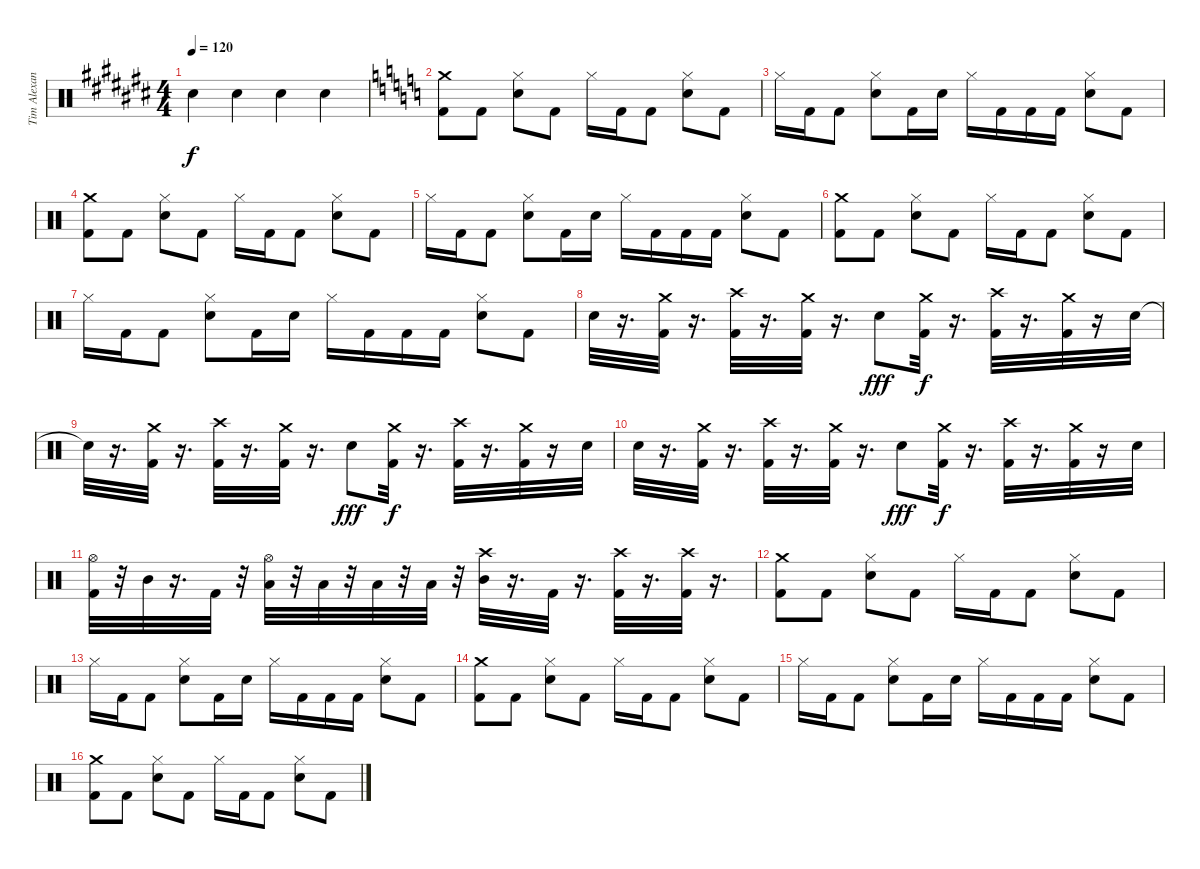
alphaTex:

\track ("Tim Alexander (Percussion)" "Tim Alexan") {instrument percussion}
\staff {score}
\articulation defaults
\ts (4 4)
\tempo 120
\clef neutral
\ks c# "Electric Snare (hit)".4{dy f} "Electric Snare (hit)".4 "Electric Snare (hit)".4 "Electric Snare (hit)".4
|
\ks c
("Crash medium (hit)" "Kick (hit) 2").8 "Kick (hit) 2".8 ("Hi-Hat (closed)" "Electric Snare (hit)").8 "Kick (hit) 2".8 "Hi-Hat (closed)".16 "Kick (hit) 2".16 "Kick (hit) 2".8 ("Hi-Hat (closed)" "Electric Snare (hit)").8 "Kick (hit) 2".8 |
"Hi-Hat (closed)".16 "Kick (hit) 2".16 "Kick (hit) 2".8 ("Hi-Hat (closed)" "Electric Snare (hit)").8 "Kick (hit) 2".16 "Electric Snare (hit)".16 "Hi-Hat (closed)".16 "Kick (hit) 2".16 "Kick (hit) 2".16 "Kick (hit) 2".16 ("Hi-Hat (closed)" "Electric Snare (hit)").8 "Kick (hit) 2".8 |
("Crash medium (hit)" "Kick (hit) 2").8 "Kick (hit) 2".8 ("Hi-Hat (closed)" "Electric Snare (hit)").8 "Kick (hit) 2".8 "Hi-Hat (closed)".16 "Kick (hit) 2".16 "Kick (hit) 2".8 ("Hi-Hat (closed)" "Electric Snare (hit)").8 "Kick (hit) 2".8 |
"Hi-Hat (closed)".16 "Kick (hit) 2".16 "Kick (hit) 2".8 ("Hi-Hat (closed)" "Electric Snare (hit)").8 "Kick (hit) 2".16 "Electric Snare (hit)".16 "Hi-Hat (closed)".16 "Kick (hit) 2".16 "Kick (hit) 2".16 "Kick (hit) 2".16 ("Hi-Hat (closed)" "Electric Snare (hit)").8 "Kick (hit) 2".8 |
("Crash medium (hit)" "Kick (hit) 2").8 "Kick (hit) 2".8 ("Hi-Hat (closed)" "Electric Snare (hit)").8 "Kick (hit) 2".8 "Hi-Hat (closed)".16 "Kick (hit) 2".16 "Kick (hit) 2".8 ("Hi-Hat (closed)" "Electric Snare (hit)").8 "Kick (hit) 2".8 |
"Hi-Hat (closed)".16 "Kick (hit) 2".16 "Kick (hit) 2".8 ("Hi-Hat (closed)" "Electric Snare (hit)").8 "Kick (hit) 2".16 "Electric Snare (hit)".16 "Hi-Hat (closed)".16 "Kick (hit) 2".16 "Kick (hit) 2".16 "Kick (hit) 2".16 ("Hi-Hat (closed)" "Electric Snare (hit)").8 "Kick (hit) 2".8 |
"Electric Snare (hit)".32 r.16{d} ("Crash medium (hit)" "Kick (hit) 2").32 r.16{d} ("Crash high (hit)" "Kick (hit) 2").32 r.16{d} ("Crash medium (hit)" "Kick (hit) 2").32 r.16{d} "Electric Snare (hit)".8{dy fff} ("Crash medium (hit)" "Kick (hit) 2").32{dy f} r.16{d} ("Crash high (hit)" "Kick (hit) 2").32 r.16{d} ("Crash medium (hit)" "Kick (hit) 2").32 r.16 "Electric Snare (hit)".32 |
"Electric Snare (hit)"{t}.32 r.16{d} ("Crash medium (hit)" "Kick (hit) 2").32 r.16{d} ("Crash high (hit)" "Kick (hit) 2").32 r.16{d} ("Crash medium (hit)" "Kick (hit) 2").32 r.16{d} "Electric Snare (hit)".8{dy fff} ("Crash medium (hit)" "Kick (hit) 2").32{dy f} r.16{d} ("Crash high (hit)" "Kick (hit) 2").32 r.16{d} ("Crash medium (hit)" "Kick (hit) 2").32 r.16 "Electric Snare (hit)".32 |
"Electric Snare (hit)".32 r.16{d} ("Crash medium (hit)" "Kick (hit) 2").32 r.16{d} ("Crash high (hit)" "Kick (hit) 2").32 r.16{d} ("Crash medium (hit)" "Kick (hit) 2").32 r.16{d} "Electric Snare (hit)".8{dy fff} ("Crash medium (hit)" "Kick (hit) 2").32{dy f} r.16{d} ("Crash high (hit)" "Kick (hit) 2").32 r.16{d} ("Crash medium (hit)" "Kick (hit) 2").32 r.16 "Electric Snare (hit)".32 |
("Hi-Hat (open)" "Kick (hit) 2").32 r.32 "Mid Tom (hit)".32 r.16{d} "Kick (hit) 2".32 r.32 ("Hi-Hat (open)" "Low Tom (hit)").32 r.32 "Low Tom (hit)".32 r.32 "Low Floor Tom (hit)".32 r.32 "Low Floor Tom (hit)".32 r.32 ("Crash high (hit)" "Mid Tom (hit)").32 r.16{d} "Kick (hit) 2".32 r.16{d} ("Kick (hit) 2" "Crash high (hit)").32 r.16{d} ("Kick (hit) 2" "Crash high (hit)").32 r.16{d} |
("Crash medium (hit)" "Kick (hit) 2").8 "Kick (hit) 2".8 ("Hi-Hat (closed)" "Electric Snare (hit)").8 "Kick (hit) 2".8 "Hi-Hat (closed)".16 "Kick (hit) 2".16 "Kick (hit) 2".8 ("Hi-Hat (closed)" "Electric Snare (hit)").8 "Kick (hit) 2".8 |
"Hi-Hat (closed)".16 "Kick (hit) 2".16 "Kick (hit) 2".8 ("Hi-Hat (closed)" "Electric Snare (hit)").8 "Kick (hit) 2".16 "Electric Snare (hit)".16 "Hi-Hat (closed)".16 "Kick (hit) 2".16 "Kick (hit) 2".16 "Kick (hit) 2".16 ("Hi-Hat (closed)" "Electric Snare (hit)").8 "Kick (hit) 2".8 |
("Crash medium (hit)" "Kick (hit) 2").8 "Kick (hit) 2".8 ("Hi-Hat (closed)" "Electric Snare (hit)").8 "Kick (hit) 2".8 "Hi-Hat (closed)".16 "Kick (hit) 2".16 "Kick (hit) 2".8 ("Hi-Hat (closed)" "Electric Snare (hit)").8 "Kick (hit) 2".8 |
"Hi-Hat (closed)".16 "Kick (hit) 2".16 "Kick (hit) 2".8 ("Hi-Hat (closed)" "Electric Snare (hit)").8 "Kick (hit) 2".16 "Electric Snare (hit)".16 "Hi-Hat (closed)".16 "Kick (hit) 2".16 "Kick (hit) 2".16 "Kick (hit) 2".16 ("Hi-Hat (closed)" "Electric Snare (hit)").8 "Kick (hit) 2".8 |
("Crash medium (hit)" "Kick (hit) 2").8 "Kick (hit) 2".8 ("Hi-Hat (closed)" "Electric Snare (hit)").8 "Kick (hit) 2".8 "Hi-Hat (closed)".16 "Kick (hit) 2".16 "Kick (hit) 2".8 ("Hi-Hat (closed)" "Electric Snare (hit)").8 "Kick (hit) 2".8
